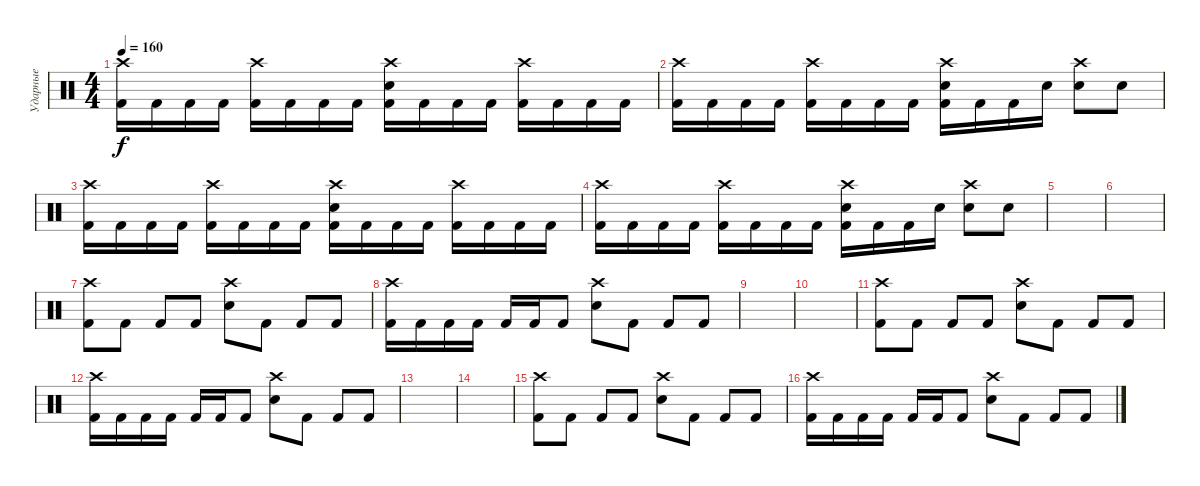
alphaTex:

\track ("Ударные" "Ударные") {instrument percussion}
\staff {score}
\articulation defaults
\ts (4 4)
\tempo 160
\clef neutral
\ks c
("Crash high (hit)" "Kick (hit) 2").16{dy f} "Kick (hit) 2".16 "Kick (hit) 2".16 "Kick (hit) 2".16 ("Crash high (hit)" "Kick (hit) 2").16 "Kick (hit) 2".16 "Kick (hit) 2".16 "Kick (hit) 2".16 ("Crash high (hit)" "Electric Snare (hit)" "Kick (hit) 2").16 "Kick (hit) 2".16 "Kick (hit) 2".16 "Kick (hit) 2".16 ("Crash high (hit)" "Kick (hit) 2").16 "Kick (hit) 2".16 "Kick (hit) 2".16 "Kick (hit) 2".16 |
("Crash high (hit)" "Kick (hit) 2").16 "Kick (hit) 2".16 "Kick (hit) 2".16 "Kick (hit) 2".16 ("Crash high (hit)" "Kick (hit) 2").16 "Kick (hit) 2".16 "Kick (hit) 2".16 "Kick (hit) 2".16 ("Crash high (hit)" "Electric Snare (hit)" "Kick (hit) 2").16 "Kick (hit) 2".16 "Kick (hit) 2".16 "Electric Snare (hit)".16 ("Crash high (hit)" "Electric Snare (hit)").8 "Electric Snare (hit)".8 |
("Crash high (hit)" "Kick (hit) 2").16 "Kick (hit) 2".16 "Kick (hit) 2".16 "Kick (hit) 2".16 ("Crash high (hit)" "Kick (hit) 2").16 "Kick (hit) 2".16 "Kick (hit) 2".16 "Kick (hit) 2".16 ("Crash high (hit)" "Electric Snare (hit)" "Kick (hit) 2").16 "Kick (hit) 2".16 "Kick (hit) 2".16 "Kick (hit) 2".16 ("Crash high (hit)" "Kick (hit) 2").16 "Kick (hit) 2".16 "Kick (hit) 2".16 "Kick (hit) 2".16 |
("Crash high (hit)" "Kick (hit) 2").16 "Kick (hit) 2".16 "Kick (hit) 2".16 "Kick (hit) 2".16 ("Crash high (hit)" "Kick (hit) 2").16 "Kick (hit) 2".16 "Kick (hit) 2".16 "Kick (hit) 2".16 ("Crash high (hit)" "Electric Snare (hit)" "Kick (hit) 2").16 "Kick (hit) 2".16 "Kick (hit) 2".16 "Electric Snare (hit)".16 ("Crash high (hit)" "Electric Snare (hit)").8 "Electric Snare (hit)".8 |
|
|
("Crash high (hit)" "Kick (hit) 2").8 "Kick (hit) 2".8 "Kick (hit) 2".8 "Kick (hit) 2".8 ("Crash high (hit)" "Electric Snare (hit)").8 "Kick (hit) 2".8 "Kick (hit) 2".8 "Kick (hit) 2".8 |
("Crash high (hit)" "Kick (hit) 2").16 "Kick (hit) 2".16 "Kick (hit) 2".16 "Kick (hit) 2".16 "Kick (hit) 2".16 "Kick (hit) 2".16 "Kick (hit) 2".8 ("Crash high (hit)" "Electric Snare (hit)").8 "Kick (hit) 2".8 "Kick (hit) 2".8 "Kick (hit) 2".8 |
|
|
("Crash high (hit)" "Kick (hit) 2").8 "Kick (hit) 2".8 "Kick (hit) 2".8 "Kick (hit) 2".8 ("Crash high (hit)" "Electric Snare (hit)").8 "Kick (hit) 2".8 "Kick (hit) 2".8 "Kick (hit) 2".8 |
("Crash high (hit)" "Kick (hit) 2").16 "Kick (hit) 2".16 "Kick (hit) 2".16 "Kick (hit) 2".16 "Kick (hit) 2".16 "Kick (hit) 2".16 "Kick (hit) 2".8 ("Crash high (hit)" "Electric Snare (hit)").8 "Kick (hit) 2".8 "Kick (hit) 2".8 "Kick (hit) 2".8 |
|
|
("Crash high (hit)" "Kick (hit) 2").8 "Kick (hit) 2".8 "Kick (hit) 2".8 "Kick (hit) 2".8 ("Crash high (hit)" "Electric Snare (hit)").8 "Kick (hit) 2".8 "Kick (hit) 2".8 "Kick (hit) 2".8 |
("Crash high (hit)" "Kick (hit) 2").16 "Kick (hit) 2".16 "Kick (hit) 2".16 "Kick (hit) 2".16 "Kick (hit) 2".16 "Kick (hit) 2".16 "Kick (hit) 2".8 ("Crash high (hit)" "Electric Snare (hit)").8 "Kick (hit) 2".8 "Kick (hit) 2".8 "Kick (hit) 2".8
